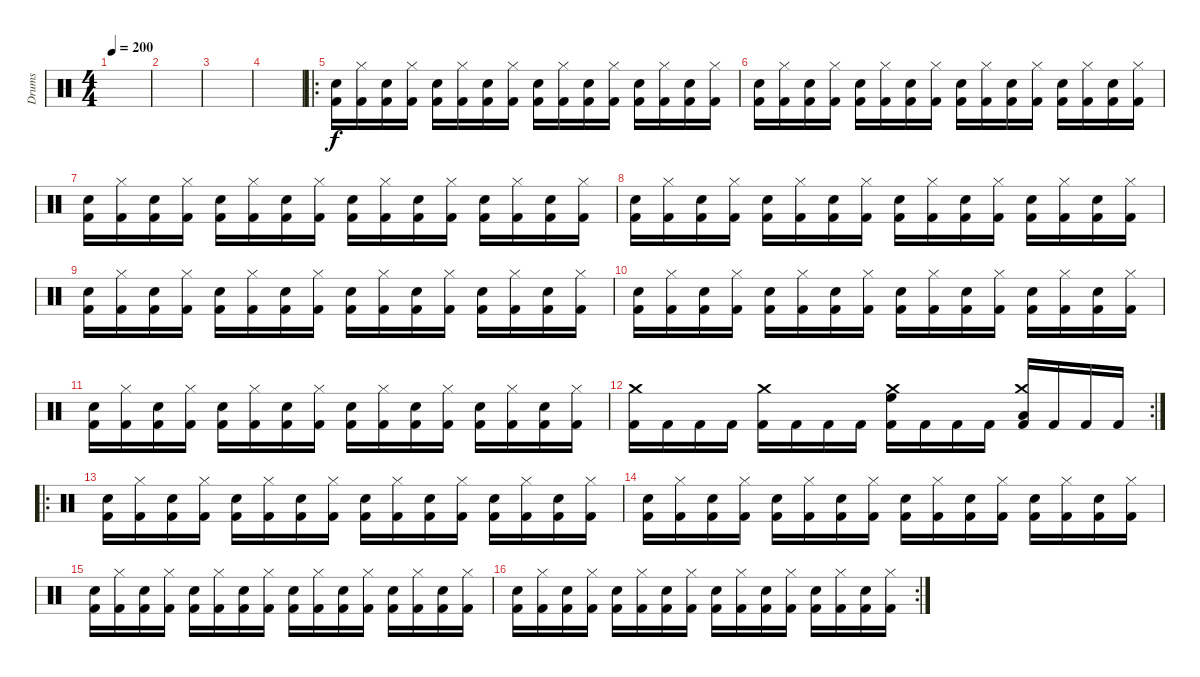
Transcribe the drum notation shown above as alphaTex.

\track ("Drums" "Drums") {instrument percussion}
\staff {score}
\articulation defaults
\ts (4 4)
\tempo 200
\clef neutral
\ks c
|
|
|
|
\ro
("Snare (hit) 2" "Kick (hit) 2").16 ("Hi-Hat (closed)" "Kick (hit) 2").16 ("Snare (hit) 2" "Kick (hit) 2").16 ("Hi-Hat (closed)" "Kick (hit) 2").16 ("Snare (hit) 2" "Kick (hit) 2").16 ("Hi-Hat (closed)" "Kick (hit) 2").16 ("Snare (hit) 2" "Kick (hit) 2").16 ("Hi-Hat (closed)" "Kick (hit) 2").16 ("Snare (hit) 2" "Kick (hit) 2").16 ("Hi-Hat (closed)" "Kick (hit) 2").16 ("Snare (hit) 2" "Kick (hit) 2").16 ("Hi-Hat (closed)" "Kick (hit) 2").16 ("Snare (hit) 2" "Kick (hit) 2").16 ("Hi-Hat (closed)" "Kick (hit) 2").16 ("Snare (hit) 2" "Kick (hit) 2").16 ("Hi-Hat (closed)" "Kick (hit) 2").16 |
("Snare (hit) 2" "Kick (hit) 2").16 ("Hi-Hat (closed)" "Kick (hit) 2").16 ("Snare (hit) 2" "Kick (hit) 2").16 ("Hi-Hat (closed)" "Kick (hit) 2").16 ("Snare (hit) 2" "Kick (hit) 2").16 ("Hi-Hat (closed)" "Kick (hit) 2").16 ("Snare (hit) 2" "Kick (hit) 2").16 ("Hi-Hat (closed)" "Kick (hit) 2").16 ("Snare (hit) 2" "Kick (hit) 2").16 ("Hi-Hat (closed)" "Kick (hit) 2").16 ("Snare (hit) 2" "Kick (hit) 2").16 ("Hi-Hat (closed)" "Kick (hit) 2").16 ("Snare (hit) 2" "Kick (hit) 2").16 ("Hi-Hat (closed)" "Kick (hit) 2").16 ("Snare (hit) 2" "Kick (hit) 2").16 ("Hi-Hat (closed)" "Kick (hit) 2").16 |
("Snare (hit) 2" "Kick (hit) 2").16 ("Hi-Hat (closed)" "Kick (hit) 2").16 ("Snare (hit) 2" "Kick (hit) 2").16 ("Hi-Hat (closed)" "Kick (hit) 2").16 ("Snare (hit) 2" "Kick (hit) 2").16 ("Hi-Hat (closed)" "Kick (hit) 2").16 ("Snare (hit) 2" "Kick (hit) 2").16 ("Hi-Hat (closed)" "Kick (hit) 2").16 ("Snare (hit) 2" "Kick (hit) 2").16 ("Hi-Hat (closed)" "Kick (hit) 2").16 ("Snare (hit) 2" "Kick (hit) 2").16 ("Hi-Hat (closed)" "Kick (hit) 2").16 ("Snare (hit) 2" "Kick (hit) 2").16 ("Hi-Hat (closed)" "Kick (hit) 2").16 ("Snare (hit) 2" "Kick (hit) 2").16 ("Hi-Hat (closed)" "Kick (hit) 2").16 |
("Snare (hit) 2" "Kick (hit) 2").16 ("Hi-Hat (closed)" "Kick (hit) 2").16 ("Snare (hit) 2" "Kick (hit) 2").16 ("Hi-Hat (closed)" "Kick (hit) 2").16 ("Snare (hit) 2" "Kick (hit) 2").16 ("Hi-Hat (closed)" "Kick (hit) 2").16 ("Snare (hit) 2" "Kick (hit) 2").16 ("Hi-Hat (closed)" "Kick (hit) 2").16 ("Snare (hit) 2" "Kick (hit) 2").16 ("Hi-Hat (closed)" "Kick (hit) 2").16 ("Snare (hit) 2" "Kick (hit) 2").16 ("Hi-Hat (closed)" "Kick (hit) 2").16 ("Snare (hit) 2" "Kick (hit) 2").16 ("Hi-Hat (closed)" "Kick (hit) 2").16 ("Snare (hit) 2" "Kick (hit) 2").16 ("Hi-Hat (closed)" "Kick (hit) 2").16 |
("Snare (hit) 2" "Kick (hit) 2").16 ("Hi-Hat (closed)" "Kick (hit) 2").16 ("Snare (hit) 2" "Kick (hit) 2").16 ("Hi-Hat (closed)" "Kick (hit) 2").16 ("Snare (hit) 2" "Kick (hit) 2").16 ("Hi-Hat (closed)" "Kick (hit) 2").16 ("Snare (hit) 2" "Kick (hit) 2").16 ("Hi-Hat (closed)" "Kick (hit) 2").16 ("Snare (hit) 2" "Kick (hit) 2").16 ("Hi-Hat (closed)" "Kick (hit) 2").16 ("Snare (hit) 2" "Kick (hit) 2").16 ("Hi-Hat (closed)" "Kick (hit) 2").16 ("Snare (hit) 2" "Kick (hit) 2").16 ("Hi-Hat (closed)" "Kick (hit) 2").16 ("Snare (hit) 2" "Kick (hit) 2").16 ("Hi-Hat (closed)" "Kick (hit) 2").16 |
("Snare (hit) 2" "Kick (hit) 2").16 ("Hi-Hat (closed)" "Kick (hit) 2").16 ("Snare (hit) 2" "Kick (hit) 2").16 ("Hi-Hat (closed)" "Kick (hit) 2").16 ("Snare (hit) 2" "Kick (hit) 2").16 ("Hi-Hat (closed)" "Kick (hit) 2").16 ("Snare (hit) 2" "Kick (hit) 2").16 ("Hi-Hat (closed)" "Kick (hit) 2").16 ("Snare (hit) 2" "Kick (hit) 2").16 ("Hi-Hat (closed)" "Kick (hit) 2").16 ("Snare (hit) 2" "Kick (hit) 2").16 ("Hi-Hat (closed)" "Kick (hit) 2").16 ("Snare (hit) 2" "Kick (hit) 2").16 ("Hi-Hat (closed)" "Kick (hit) 2").16 ("Snare (hit) 2" "Kick (hit) 2").16 ("Hi-Hat (closed)" "Kick (hit) 2").16 |
("Snare (hit) 2" "Kick (hit) 2").16 ("Hi-Hat (closed)" "Kick (hit) 2").16 ("Snare (hit) 2" "Kick (hit) 2").16 ("Hi-Hat (closed)" "Kick (hit) 2").16 ("Snare (hit) 2" "Kick (hit) 2").16 ("Hi-Hat (closed)" "Kick (hit) 2").16 ("Snare (hit) 2" "Kick (hit) 2").16 ("Hi-Hat (closed)" "Kick (hit) 2").16 ("Snare (hit) 2" "Kick (hit) 2").16 ("Hi-Hat (closed)" "Kick (hit) 2").16 ("Snare (hit) 2" "Kick (hit) 2").16 ("Hi-Hat (closed)" "Kick (hit) 2").16 ("Snare (hit) 2" "Kick (hit) 2").16 ("Hi-Hat (closed)" "Kick (hit) 2").16 ("Snare (hit) 2" "Kick (hit) 2").16 ("Hi-Hat (closed)" "Kick (hit) 2").16 |
\rc 2
("Crash medium (hit)" "Kick (hit) 2").16 "Kick (hit) 2".16 "Kick (hit) 2".16 "Kick (hit) 2".16 ("Crash medium (hit)" "Kick (hit) 2").16 "Kick (hit) 2".16 "Kick (hit) 2".16 "Kick (hit) 2".16 ("Crash medium (hit)" "High Floor Tom (hit)" "Kick (hit) 2").16 "Kick (hit) 2".16 "Kick (hit) 2".16 "Kick (hit) 2".16 ("Crash medium (hit)" "Low Floor Tom (hit)" "Kick (hit) 2").16 "Kick (hit) 2".16 "Kick (hit) 2".16 "Kick (hit) 2".16 |
\ro
("Snare (hit) 2" "Kick (hit) 2").16 ("Hi-Hat (closed)" "Kick (hit) 2").16 ("Snare (hit) 2" "Kick (hit) 2").16 ("Hi-Hat (closed)" "Kick (hit) 2").16 ("Snare (hit) 2" "Kick (hit) 2").16 ("Hi-Hat (closed)" "Kick (hit) 2").16 ("Snare (hit) 2" "Kick (hit) 2").16 ("Hi-Hat (closed)" "Kick (hit) 2").16 ("Snare (hit) 2" "Kick (hit) 2").16 ("Hi-Hat (closed)" "Kick (hit) 2").16 ("Snare (hit) 2" "Kick (hit) 2").16 ("Hi-Hat (closed)" "Kick (hit) 2").16 ("Snare (hit) 2" "Kick (hit) 2").16 ("Hi-Hat (closed)" "Kick (hit) 2").16 ("Snare (hit) 2" "Kick (hit) 2").16 ("Hi-Hat (closed)" "Kick (hit) 2").16 |
("Snare (hit) 2" "Kick (hit) 2").16 ("Hi-Hat (closed)" "Kick (hit) 2").16 ("Snare (hit) 2" "Kick (hit) 2").16 ("Hi-Hat (closed)" "Kick (hit) 2").16 ("Snare (hit) 2" "Kick (hit) 2").16 ("Hi-Hat (closed)" "Kick (hit) 2").16 ("Snare (hit) 2" "Kick (hit) 2").16 ("Hi-Hat (closed)" "Kick (hit) 2").16 ("Snare (hit) 2" "Kick (hit) 2").16 ("Hi-Hat (closed)" "Kick (hit) 2").16 ("Snare (hit) 2" "Kick (hit) 2").16 ("Hi-Hat (closed)" "Kick (hit) 2").16 ("Snare (hit) 2" "Kick (hit) 2").16 ("Hi-Hat (closed)" "Kick (hit) 2").16 ("Snare (hit) 2" "Kick (hit) 2").16 ("Hi-Hat (closed)" "Kick (hit) 2").16 |
("Snare (hit) 2" "Kick (hit) 2").16 ("Hi-Hat (closed)" "Kick (hit) 2").16 ("Snare (hit) 2" "Kick (hit) 2").16 ("Hi-Hat (closed)" "Kick (hit) 2").16 ("Snare (hit) 2" "Kick (hit) 2").16 ("Hi-Hat (closed)" "Kick (hit) 2").16 ("Snare (hit) 2" "Kick (hit) 2").16 ("Hi-Hat (closed)" "Kick (hit) 2").16 ("Snare (hit) 2" "Kick (hit) 2").16 ("Hi-Hat (closed)" "Kick (hit) 2").16 ("Snare (hit) 2" "Kick (hit) 2").16 ("Hi-Hat (closed)" "Kick (hit) 2").16 ("Snare (hit) 2" "Kick (hit) 2").16 ("Hi-Hat (closed)" "Kick (hit) 2").16 ("Snare (hit) 2" "Kick (hit) 2").16 ("Hi-Hat (closed)" "Kick (hit) 2").16 |
\rc 2
("Snare (hit) 2" "Kick (hit) 2").16 ("Hi-Hat (closed)" "Kick (hit) 2").16 ("Snare (hit) 2" "Kick (hit) 2").16 ("Hi-Hat (closed)" "Kick (hit) 2").16 ("Snare (hit) 2" "Kick (hit) 2").16 ("Hi-Hat (closed)" "Kick (hit) 2").16 ("Snare (hit) 2" "Kick (hit) 2").16 ("Hi-Hat (closed)" "Kick (hit) 2").16 ("Snare (hit) 2" "Kick (hit) 2").16 ("Hi-Hat (closed)" "Kick (hit) 2").16 ("Snare (hit) 2" "Kick (hit) 2").16 ("Hi-Hat (closed)" "Kick (hit) 2").16 ("Snare (hit) 2" "Kick (hit) 2").16 ("Hi-Hat (closed)" "Kick (hit) 2").16 ("Snare (hit) 2" "Kick (hit) 2").16 ("Hi-Hat (closed)" "Kick (hit) 2").16
